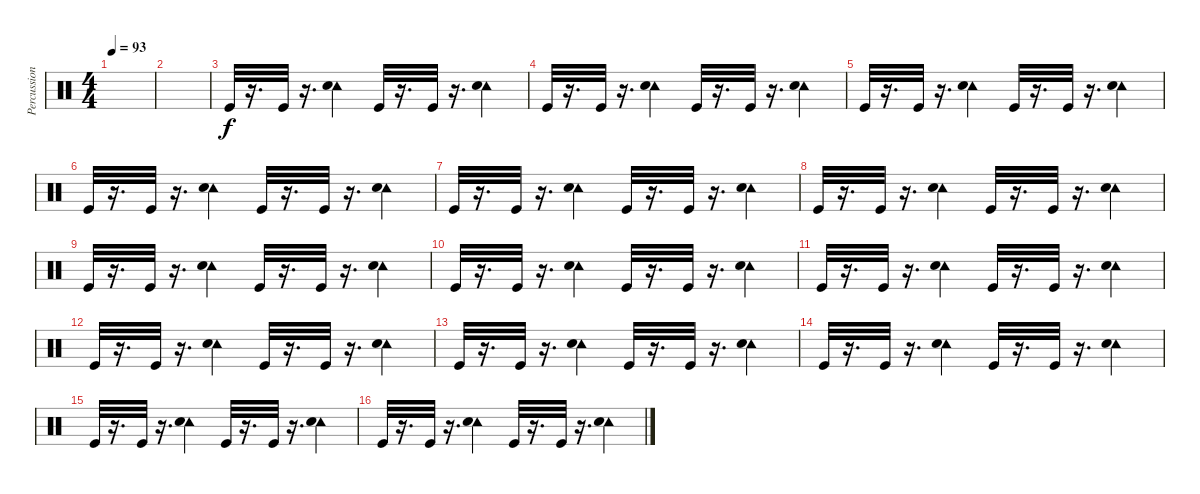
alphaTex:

\track ("Percussions" "Percussion") {instrument percussion}
\staff {score}
\articulation defaults
\ts (4 4)
\section ("" "")
\tempo 93
\clef neutral
\ks c
|
|
"Kick (hit)".32 r.16{d} "Kick (hit)".32 r.16{d} ("Tambourine (hit)" "Snare (hit) 2").4 "Kick (hit)".32 r.16{d} "Kick (hit)".32 r.16{d} ("Tambourine (hit)" "Snare (hit) 2").4 |
"Kick (hit)".32 r.16{d} "Kick (hit)".32 r.16{d} ("Tambourine (hit)" "Snare (hit) 2").4 "Kick (hit)".32 r.16{d} "Kick (hit)".32 r.16{d} ("Tambourine (hit)" "Snare (hit) 2").4 |
"Kick (hit)".32 r.16{d} "Kick (hit)".32 r.16{d} ("Tambourine (hit)" "Snare (hit) 2").4 "Kick (hit)".32 r.16{d} "Kick (hit)".32 r.16{d} ("Tambourine (hit)" "Snare (hit) 2").4 |
"Kick (hit)".32 r.16{d} "Kick (hit)".32 r.16{d} ("Tambourine (hit)" "Snare (hit) 2").4 "Kick (hit)".32 r.16{d} "Kick (hit)".32 r.16{d} ("Tambourine (hit)" "Snare (hit) 2").4 |
"Kick (hit)".32 r.16{d} "Kick (hit)".32 r.16{d} ("Tambourine (hit)" "Snare (hit) 2").4 "Kick (hit)".32 r.16{d} "Kick (hit)".32 r.16{d} ("Tambourine (hit)" "Snare (hit) 2").4 |
"Kick (hit)".32 r.16{d} "Kick (hit)".32 r.16{d} ("Tambourine (hit)" "Snare (hit) 2").4 "Kick (hit)".32 r.16{d} "Kick (hit)".32 r.16{d} ("Tambourine (hit)" "Snare (hit) 2").4 |
"Kick (hit)".32 r.16{d} "Kick (hit)".32 r.16{d} ("Tambourine (hit)" "Snare (hit) 2").4 "Kick (hit)".32 r.16{d} "Kick (hit)".32 r.16{d} ("Tambourine (hit)" "Snare (hit) 2").4 |
"Kick (hit)".32 r.16{d} "Kick (hit)".32 r.16{d} ("Tambourine (hit)" "Snare (hit) 2").4 "Kick (hit)".32 r.16{d} "Kick (hit)".32 r.16{d} ("Tambourine (hit)" "Snare (hit) 2").4 |
"Kick (hit)".32 r.16{d} "Kick (hit)".32 r.16{d} ("Tambourine (hit)" "Snare (hit) 2").4 "Kick (hit)".32 r.16{d} "Kick (hit)".32 r.16{d} ("Tambourine (hit)" "Snare (hit) 2").4 |
"Kick (hit)".32 r.16{d} "Kick (hit)".32 r.16{d} ("Tambourine (hit)" "Snare (hit) 2").4 "Kick (hit)".32 r.16{d} "Kick (hit)".32 r.16{d} ("Tambourine (hit)" "Snare (hit) 2").4 |
"Kick (hit)".32 r.16{d} "Kick (hit)".32 r.16{d} ("Tambourine (hit)" "Snare (hit) 2").4 "Kick (hit)".32 r.16{d} "Kick (hit)".32 r.16{d} ("Tambourine (hit)" "Snare (hit) 2").4 |
"Kick (hit)".32 r.16{d} "Kick (hit)".32 r.16{d} ("Tambourine (hit)" "Snare (hit) 2").4 "Kick (hit)".32 r.16{d} "Kick (hit)".32 r.16{d} ("Tambourine (hit)" "Snare (hit) 2").4 |
"Kick (hit)".32 r.16{d} "Kick (hit)".32 r.16{d} ("Tambourine (hit)" "Snare (hit) 2").4 "Kick (hit)".32 r.16{d} "Kick (hit)".32 r.16{d} ("Tambourine (hit)" "Snare (hit) 2").4 |
"Kick (hit)".32 r.16{d} "Kick (hit)".32 r.16{d} ("Tambourine (hit)" "Snare (hit) 2").4 "Kick (hit)".32 r.16{d} "Kick (hit)".32 r.16{d} ("Tambourine (hit)" "Snare (hit) 2").4
